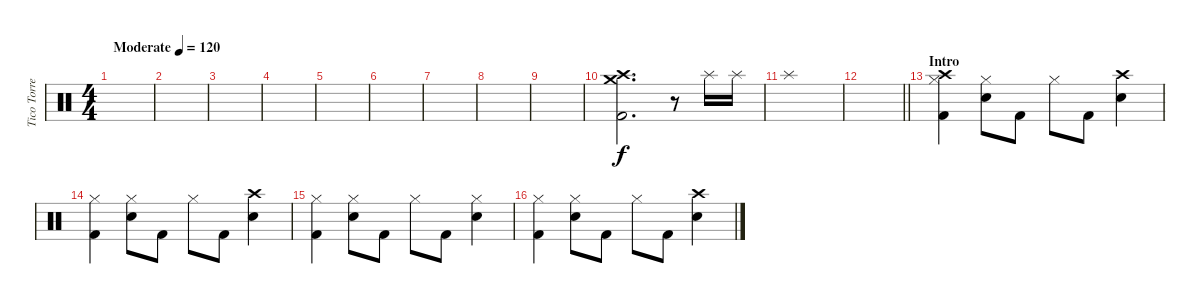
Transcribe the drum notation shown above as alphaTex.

\track ("Tico Torres (Drums)" "Tico Torre") {instrument percussion}
\staff {score}
\articulation defaults
\ts (4 4)
\tempo (120 "Moderate")
\clef neutral
\ks c
|
|
|
|
|
|
|
|
|
("Crash high (hit)" "Crash medium (hit)" "Kick (hit) 2").2{d} r.8 "Splash (hit)".16 "Splash (hit)".16 |
"Splash (hit)".1 |
\barLineRight lightlight
|
\section ("" "Intro")
("Crash high (hit)" "Hi-Hat (closed)" "Kick (hit) 2").4 ("Hi-Hat (closed)" "Electric Snare (hit)").8 "Kick (hit) 2".8 "Hi-Hat (closed)".8 "Kick (hit) 2".8 ("Crash high (hit)" "Electric Snare (hit)").4 |
("Hi-Hat (closed)" "Kick (hit) 2").4 ("Hi-Hat (closed)" "Electric Snare (hit)").8 "Kick (hit) 2".8 "Hi-Hat (closed)".8 "Kick (hit) 2".8 ("Crash high (hit)" "Electric Snare (hit)").4 |
("Hi-Hat (closed)" "Kick (hit) 2").4 ("Hi-Hat (closed)" "Electric Snare (hit)").8 "Kick (hit) 2".8 "Hi-Hat (closed)".8 "Kick (hit) 2".8 ("Hi-Hat (closed)" "Electric Snare (hit)").4 |
("Hi-Hat (closed)" "Kick (hit) 2").4 ("Hi-Hat (closed)" "Electric Snare (hit)").8 "Kick (hit) 2".8 "Hi-Hat (closed)".8 "Kick (hit) 2".8 ("Crash high (hit)" "Electric Snare (hit)").4
